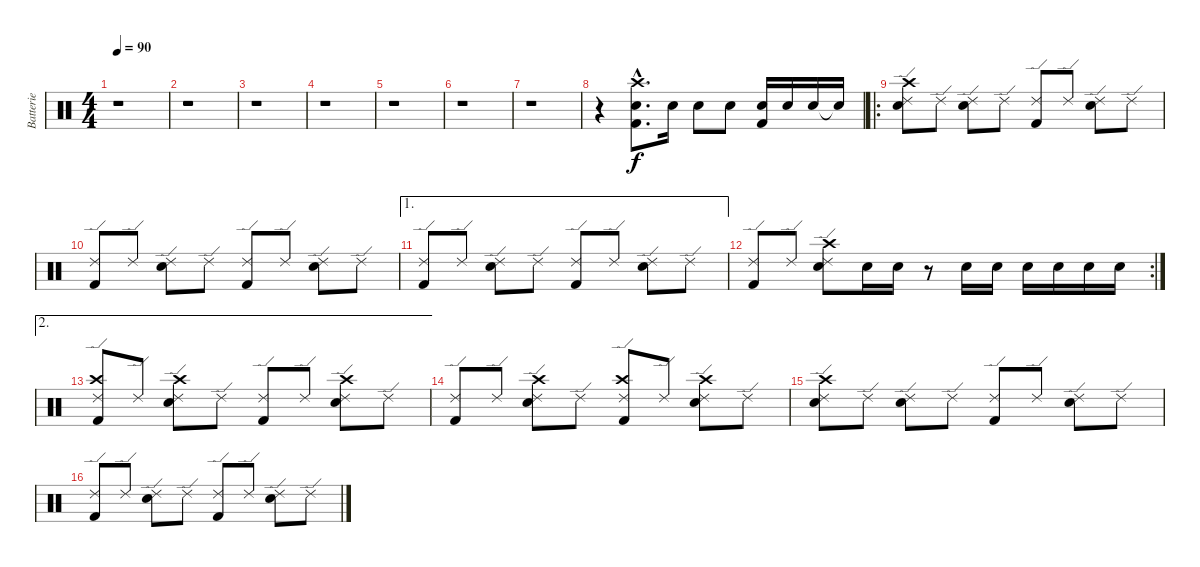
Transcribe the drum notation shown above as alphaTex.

\track ("Batterie" "Batterie") {instrument percussion}
\staff {score}
\articulation defaults
\ts (4 4)
\tempo 90
\clef neutral
\ks c
r.1{dy f} |
r.1 |
r.1 |
r.1 |
r.1 |
r.1 |
r.1 |
r.4 ("Kick (hit) 2"{hac} "Electric Snare (hit)"{hac} "Crash high (hit)"{hac}).8{d} "Electric Snare (hit)".16 "Electric Snare (hit)".8 "Electric Snare (hit)".8 ("Kick (hit) 2" "Electric Snare (hit)").16 "Electric Snare (hit)".16 "Electric Snare (hit)".16 "Snare (hit)"{t}.16 |
\ro
("Ride (edge) 2" "Electric Snare (hit)" "Crash high (hit)").8 "Ride (edge) 2".8 ("Ride (edge) 2" "Electric Snare (hit)").8 "Ride (edge) 2".8 ("Ride (edge) 2" "Kick (hit) 2").8 "Ride (edge) 2".8 ("Ride (edge) 2" "Electric Snare (hit)").8 "Ride (edge) 2".8 |
("Ride (edge) 2" "Kick (hit) 2").8 "Ride (edge) 2".8 ("Ride (edge) 2" "Electric Snare (hit)").8 "Ride (edge) 2".8 ("Ride (edge) 2" "Kick (hit) 2").8 "Ride (edge) 2".8 ("Ride (edge) 2" "Electric Snare (hit)").8 "Ride (edge) 2".8 |
\ae 1
("Ride (edge) 2" "Kick (hit) 2").8 "Ride (edge) 2".8 ("Ride (edge) 2" "Electric Snare (hit)").8 "Ride (edge) 2".8 ("Ride (edge) 2" "Kick (hit) 2").8 "Ride (edge) 2".8 ("Ride (edge) 2" "Electric Snare (hit)").8 "Ride (edge) 2".8 |
\rc 2
("Ride (edge) 2" "Kick (hit) 2").8 "Ride (edge) 2".8 ("Ride (edge) 2" "Electric Snare (hit)" "Crash high (hit)").8 "Electric Snare (hit)".16 "Electric Snare (hit)".16 r.8 "Electric Snare (hit)".16 "Electric Snare (hit)".16 "Electric Snare (hit)".16 "Electric Snare (hit)".16 "Electric Snare (hit)".16 "Electric Snare (hit)".16 |
\ae 2
("Ride (edge) 2" "Kick (hit) 2" "Crash high (hit)").8 "Ride (edge) 2".8 ("Ride (edge) 2" "Electric Snare (hit)" "Crash high (hit)").8 "Ride (edge) 2".8 ("Ride (edge) 2" "Kick (hit) 2").8 "Ride (edge) 2".8 ("Ride (edge) 2" "Electric Snare (hit)" "Crash high (hit)").8 "Ride (edge) 2".8 |
("Ride (edge) 2" "Kick (hit) 2").8 "Ride (edge) 2".8 ("Ride (edge) 2" "Electric Snare (hit)" "Crash high (hit)").8 "Ride (edge) 2".8 ("Ride (edge) 2" "Kick (hit) 2" "Crash high (hit)").8 "Ride (edge) 2".8 ("Ride (edge) 2" "Electric Snare (hit)" "Crash high (hit)").8 "Ride (edge) 2".8 |
("Ride (edge) 2" "Electric Snare (hit)" "Crash high (hit)").8 "Ride (edge) 2".8 ("Ride (edge) 2" "Electric Snare (hit)").8 "Ride (edge) 2".8 ("Ride (edge) 2" "Kick (hit) 2").8 "Ride (edge) 2".8 ("Ride (edge) 2" "Electric Snare (hit)").8 "Ride (edge) 2".8 |
("Ride (edge) 2" "Kick (hit) 2").8 "Ride (edge) 2".8 ("Ride (edge) 2" "Electric Snare (hit)").8 "Ride (edge) 2".8 ("Ride (edge) 2" "Kick (hit) 2").8 "Ride (edge) 2".8 ("Ride (edge) 2" "Electric Snare (hit)").8 "Ride (edge) 2".8
